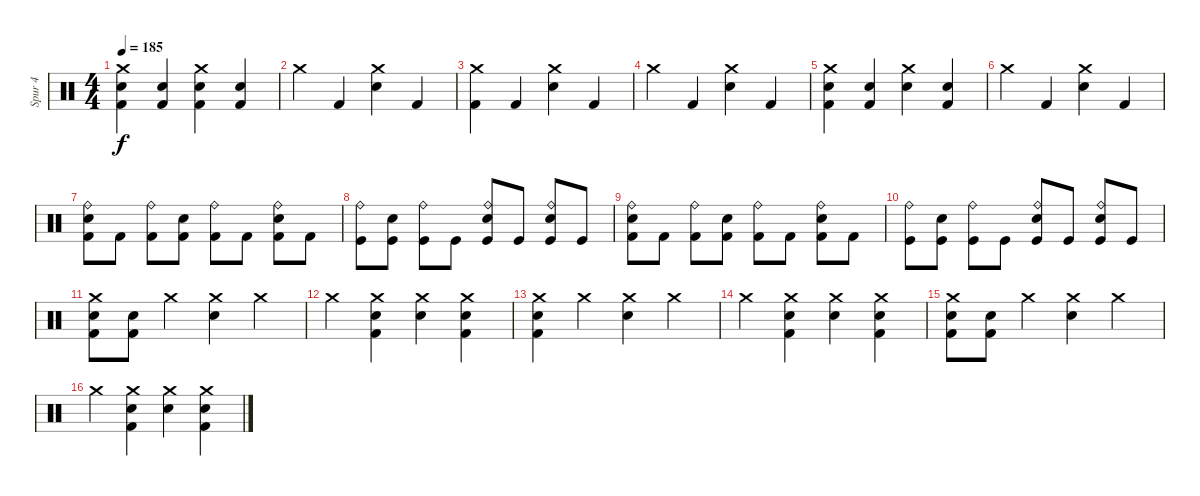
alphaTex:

\track ("Spur 4" "Spur 4") {instrument percussion}
\staff {score}
\articulation defaults
\ts (4 4)
\tempo 185
\clef neutral
\ks c
("Crash medium (hit)" "Electric Snare (hit)" "Kick (hit) 2").4{dy f} ("Electric Snare (hit)" "Kick (hit) 2").4 ("Crash medium (hit)" "Electric Snare (hit)" "Kick (hit) 2").4 ("Electric Snare (hit)" "Kick (hit) 2").4 |
"Crash medium (hit)".4 "Kick (hit) 2".4 ("Crash medium (hit)" "Electric Snare (hit)").4 "Kick (hit) 2".4 |
("Crash medium (hit)" "Kick (hit) 2").4 "Kick (hit) 2".4 ("Crash medium (hit)" "Electric Snare (hit)").4 "Kick (hit) 2".4 |
"Crash medium (hit)".4 "Kick (hit) 2".4 ("Crash medium (hit)" "Electric Snare (hit)").4 "Kick (hit) 2".4 |
("Crash medium (hit)" "Electric Snare (hit)" "Kick (hit) 2").4 ("Electric Snare (hit)" "Kick (hit) 2").4 ("Crash medium (hit)" "Electric Snare (hit)").4 ("Electric Snare (hit)" "Kick (hit) 2").4 |
"Crash medium (hit)".4 "Kick (hit) 2".4 ("Crash medium (hit)" "Electric Snare (hit)").4 "Kick (hit) 2".4 |
("Ride (bell)" "Electric Snare (hit)" "Kick (hit) 2").8 "Kick (hit) 2".8 ("Ride (bell)" "Kick (hit) 2").8 ("Electric Snare (hit)" "Kick (hit) 2").8 ("Ride (bell)" "Kick (hit) 2").8 "Kick (hit) 2".8 ("Ride (bell)" "Electric Snare (hit)" "Kick (hit) 2").8 "Kick (hit) 2".8 |
("Ride (bell)" "Kick (hit)").8 ("Electric Snare (hit)" "Kick (hit)").8 ("Ride (bell)" "Kick (hit)").8 "Kick (hit)".8 ("Ride (bell)" "Electric Snare (hit)" "Kick (hit)").8 "Kick (hit)".8 ("Ride (bell)" "Electric Snare (hit)" "Kick (hit)").8 "Kick (hit)".8 |
("Ride (bell)" "Electric Snare (hit)" "Kick (hit) 2").8 "Kick (hit) 2".8 ("Ride (bell)" "Kick (hit) 2").8 ("Electric Snare (hit)" "Kick (hit) 2").8 ("Ride (bell)" "Kick (hit) 2").8 "Kick (hit) 2".8 ("Ride (bell)" "Electric Snare (hit)" "Kick (hit) 2").8 "Kick (hit) 2".8 |
("Ride (bell)" "Kick (hit)").8 ("Electric Snare (hit)" "Kick (hit)").8 ("Ride (bell)" "Kick (hit)").8 "Kick (hit)".8 ("Ride (bell)" "Electric Snare (hit)" "Kick (hit)").8 "Kick (hit)".8 ("Ride (bell)" "Electric Snare (hit)" "Kick (hit)").8 "Kick (hit)".8 |
("Crash medium (hit)" "Snare (hit) 2" "Kick (hit) 2").8 ("Snare (hit) 2" "Kick (hit) 2").8 "Crash medium (hit)".4 ("Crash medium (hit)" "Electric Snare (hit)").4 "Crash medium (hit)".4 |
"Crash medium (hit)".4 ("Crash medium (hit)" "Snare (hit) 2" "Kick (hit) 2").4 ("Crash medium (hit)" "Electric Snare (hit)").4 ("Crash medium (hit)" "Snare (hit) 2" "Kick (hit) 2").4 |
("Crash medium (hit)" "Snare (hit) 2" "Kick (hit) 2").4 "Crash medium (hit)".4 ("Crash medium (hit)" "Electric Snare (hit)").4 "Crash medium (hit)".4 |
"Crash medium (hit)".4 ("Crash medium (hit)" "Snare (hit) 2" "Kick (hit) 2").4 ("Crash medium (hit)" "Electric Snare (hit)").4 ("Crash medium (hit)" "Snare (hit) 2" "Kick (hit) 2").4 |
("Crash medium (hit)" "Snare (hit) 2" "Kick (hit) 2").8 ("Snare (hit) 2" "Kick (hit) 2").8 "Crash medium (hit)".4 ("Crash medium (hit)" "Electric Snare (hit)").4 "Crash medium (hit)".4 |
"Crash medium (hit)".4 ("Crash medium (hit)" "Snare (hit) 2" "Kick (hit) 2").4 ("Crash medium (hit)" "Electric Snare (hit)").4 ("Crash medium (hit)" "Snare (hit) 2" "Kick (hit) 2").4
